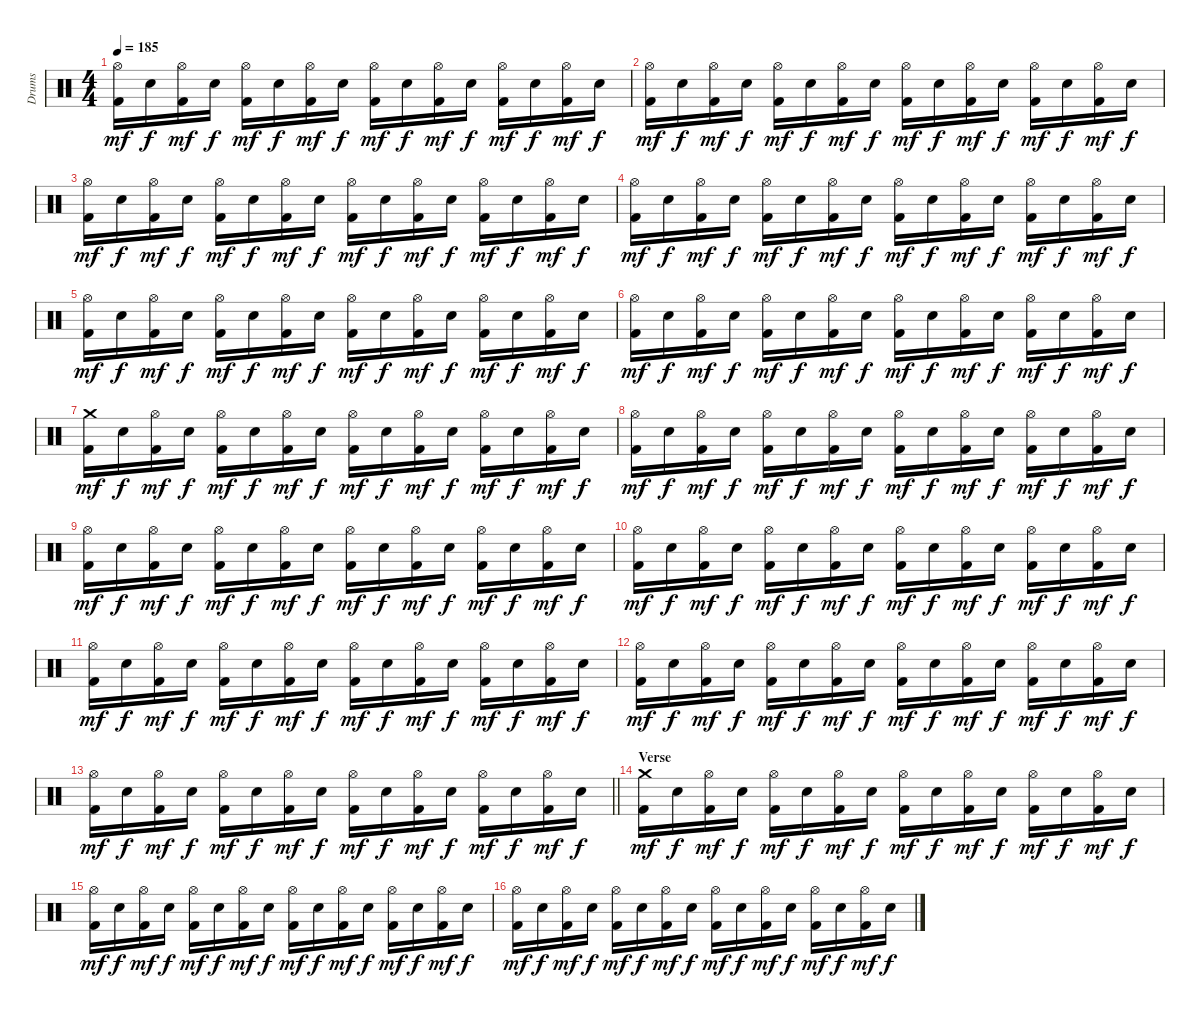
\track ("Drums" "Drums") {instrument percussion}
\staff {score}
\articulation defaults
\ts (4 4)
\tempo 185
\clef neutral
\ks c
("Hi-Hat (open)" "Kick (hit) 2").16{dy mf} "Electric Snare (hit)".16{dy f} ("Hi-Hat (open)" "Kick (hit) 2").16{dy mf} "Electric Snare (hit)".16{dy f} ("Hi-Hat (open)" "Kick (hit) 2").16{dy mf} "Electric Snare (hit)".16{dy f} ("Hi-Hat (open)" "Kick (hit) 2").16{dy mf} "Electric Snare (hit)".16{dy f} ("Hi-Hat (open)" "Kick (hit) 2").16{dy mf} "Electric Snare (hit)".16{dy f} ("Hi-Hat (open)" "Kick (hit) 2").16{dy mf} "Electric Snare (hit)".16{dy f} ("Hi-Hat (open)" "Kick (hit) 2").16{dy mf} "Electric Snare (hit)".16{dy f} ("Hi-Hat (open)" "Kick (hit) 2").16{dy mf} "Electric Snare (hit)".16{dy f} |
("Hi-Hat (open)" "Kick (hit) 2").16{dy mf} "Electric Snare (hit)".16{dy f} ("Hi-Hat (open)" "Kick (hit) 2").16{dy mf} "Electric Snare (hit)".16{dy f} ("Hi-Hat (open)" "Kick (hit) 2").16{dy mf} "Electric Snare (hit)".16{dy f} ("Hi-Hat (open)" "Kick (hit) 2").16{dy mf} "Electric Snare (hit)".16{dy f} ("Hi-Hat (open)" "Kick (hit) 2").16{dy mf} "Electric Snare (hit)".16{dy f} ("Hi-Hat (open)" "Kick (hit) 2").16{dy mf} "Electric Snare (hit)".16{dy f} ("Hi-Hat (open)" "Kick (hit) 2").16{dy mf} "Electric Snare (hit)".16{dy f} ("Hi-Hat (open)" "Kick (hit) 2").16{dy mf} "Electric Snare (hit)".16{dy f} |
("Hi-Hat (open)" "Kick (hit) 2").16{dy mf} "Electric Snare (hit)".16{dy f} ("Hi-Hat (open)" "Kick (hit) 2").16{dy mf} "Electric Snare (hit)".16{dy f} ("Hi-Hat (open)" "Kick (hit) 2").16{dy mf} "Electric Snare (hit)".16{dy f} ("Hi-Hat (open)" "Kick (hit) 2").16{dy mf} "Electric Snare (hit)".16{dy f} ("Hi-Hat (open)" "Kick (hit) 2").16{dy mf} "Electric Snare (hit)".16{dy f} ("Hi-Hat (open)" "Kick (hit) 2").16{dy mf} "Electric Snare (hit)".16{dy f} ("Hi-Hat (open)" "Kick (hit) 2").16{dy mf} "Electric Snare (hit)".16{dy f} ("Hi-Hat (open)" "Kick (hit) 2").16{dy mf} "Electric Snare (hit)".16{dy f} |
("Hi-Hat (open)" "Kick (hit) 2").16{dy mf} "Electric Snare (hit)".16{dy f} ("Hi-Hat (open)" "Kick (hit) 2").16{dy mf} "Electric Snare (hit)".16{dy f} ("Hi-Hat (open)" "Kick (hit) 2").16{dy mf} "Electric Snare (hit)".16{dy f} ("Hi-Hat (open)" "Kick (hit) 2").16{dy mf} "Electric Snare (hit)".16{dy f} ("Hi-Hat (open)" "Kick (hit) 2").16{dy mf} "Electric Snare (hit)".16{dy f} ("Hi-Hat (open)" "Kick (hit) 2").16{dy mf} "Electric Snare (hit)".16{dy f} ("Hi-Hat (open)" "Kick (hit) 2").16{dy mf} "Electric Snare (hit)".16{dy f} ("Hi-Hat (open)" "Kick (hit) 2").16{dy mf} "Electric Snare (hit)".16{dy f} |
("Hi-Hat (open)" "Kick (hit) 2").16{dy mf} "Electric Snare (hit)".16{dy f} ("Hi-Hat (open)" "Kick (hit) 2").16{dy mf} "Electric Snare (hit)".16{dy f} ("Hi-Hat (open)" "Kick (hit) 2").16{dy mf} "Electric Snare (hit)".16{dy f} ("Hi-Hat (open)" "Kick (hit) 2").16{dy mf} "Electric Snare (hit)".16{dy f} ("Hi-Hat (open)" "Kick (hit) 2").16{dy mf} "Electric Snare (hit)".16{dy f} ("Hi-Hat (open)" "Kick (hit) 2").16{dy mf} "Electric Snare (hit)".16{dy f} ("Hi-Hat (open)" "Kick (hit) 2").16{dy mf} "Electric Snare (hit)".16{dy f} ("Hi-Hat (open)" "Kick (hit) 2").16{dy mf} "Electric Snare (hit)".16{dy f} |
("Hi-Hat (open)" "Kick (hit) 2").16{dy mf} "Electric Snare (hit)".16{dy f} ("Hi-Hat (open)" "Kick (hit) 2").16{dy mf} "Electric Snare (hit)".16{dy f} ("Hi-Hat (open)" "Kick (hit) 2").16{dy mf} "Electric Snare (hit)".16{dy f} ("Hi-Hat (open)" "Kick (hit) 2").16{dy mf} "Electric Snare (hit)".16{dy f} ("Hi-Hat (open)" "Kick (hit) 2").16{dy mf} "Electric Snare (hit)".16{dy f} ("Hi-Hat (open)" "Kick (hit) 2").16{dy mf} "Electric Snare (hit)".16{dy f} ("Hi-Hat (open)" "Kick (hit) 2").16{dy mf} "Electric Snare (hit)".16{dy f} ("Hi-Hat (open)" "Kick (hit) 2").16{dy mf} "Electric Snare (hit)".16{dy f} |
("Crash medium (hit)" "Kick (hit) 2").16{dy mf} "Electric Snare (hit)".16{dy f} ("Hi-Hat (open)" "Kick (hit) 2").16{dy mf} "Electric Snare (hit)".16{dy f} ("Hi-Hat (open)" "Kick (hit) 2").16{dy mf} "Electric Snare (hit)".16{dy f} ("Hi-Hat (open)" "Kick (hit) 2").16{dy mf} "Electric Snare (hit)".16{dy f} ("Hi-Hat (open)" "Kick (hit) 2").16{dy mf} "Electric Snare (hit)".16{dy f} ("Hi-Hat (open)" "Kick (hit) 2").16{dy mf} "Electric Snare (hit)".16{dy f} ("Hi-Hat (open)" "Kick (hit) 2").16{dy mf} "Electric Snare (hit)".16{dy f} ("Hi-Hat (open)" "Kick (hit) 2").16{dy mf} "Electric Snare (hit)".16{dy f} |
("Hi-Hat (open)" "Kick (hit) 2").16{dy mf} "Electric Snare (hit)".16{dy f} ("Hi-Hat (open)" "Kick (hit) 2").16{dy mf} "Electric Snare (hit)".16{dy f} ("Hi-Hat (open)" "Kick (hit) 2").16{dy mf} "Electric Snare (hit)".16{dy f} ("Hi-Hat (open)" "Kick (hit) 2").16{dy mf} "Electric Snare (hit)".16{dy f} ("Hi-Hat (open)" "Kick (hit) 2").16{dy mf} "Electric Snare (hit)".16{dy f} ("Hi-Hat (open)" "Kick (hit) 2").16{dy mf} "Electric Snare (hit)".16{dy f} ("Hi-Hat (open)" "Kick (hit) 2").16{dy mf} "Electric Snare (hit)".16{dy f} ("Hi-Hat (open)" "Kick (hit) 2").16{dy mf} "Electric Snare (hit)".16{dy f} |
("Hi-Hat (open)" "Kick (hit) 2").16{dy mf} "Electric Snare (hit)".16{dy f} ("Hi-Hat (open)" "Kick (hit) 2").16{dy mf} "Electric Snare (hit)".16{dy f} ("Hi-Hat (open)" "Kick (hit) 2").16{dy mf} "Electric Snare (hit)".16{dy f} ("Hi-Hat (open)" "Kick (hit) 2").16{dy mf} "Electric Snare (hit)".16{dy f} ("Hi-Hat (open)" "Kick (hit) 2").16{dy mf} "Electric Snare (hit)".16{dy f} ("Hi-Hat (open)" "Kick (hit) 2").16{dy mf} "Electric Snare (hit)".16{dy f} ("Hi-Hat (open)" "Kick (hit) 2").16{dy mf} "Electric Snare (hit)".16{dy f} ("Hi-Hat (open)" "Kick (hit) 2").16{dy mf} "Electric Snare (hit)".16{dy f} |
("Hi-Hat (open)" "Kick (hit) 2").16{dy mf} "Electric Snare (hit)".16{dy f} ("Hi-Hat (open)" "Kick (hit) 2").16{dy mf} "Electric Snare (hit)".16{dy f} ("Hi-Hat (open)" "Kick (hit) 2").16{dy mf} "Electric Snare (hit)".16{dy f} ("Hi-Hat (open)" "Kick (hit) 2").16{dy mf} "Electric Snare (hit)".16{dy f} ("Hi-Hat (open)" "Kick (hit) 2").16{dy mf} "Electric Snare (hit)".16{dy f} ("Hi-Hat (open)" "Kick (hit) 2").16{dy mf} "Electric Snare (hit)".16{dy f} ("Hi-Hat (open)" "Kick (hit) 2").16{dy mf} "Electric Snare (hit)".16{dy f} ("Hi-Hat (open)" "Kick (hit) 2").16{dy mf} "Electric Snare (hit)".16{dy f} |
("Hi-Hat (open)" "Kick (hit) 2").16{dy mf} "Electric Snare (hit)".16{dy f} ("Hi-Hat (open)" "Kick (hit) 2").16{dy mf} "Electric Snare (hit)".16{dy f} ("Hi-Hat (open)" "Kick (hit) 2").16{dy mf} "Electric Snare (hit)".16{dy f} ("Hi-Hat (open)" "Kick (hit) 2").16{dy mf} "Electric Snare (hit)".16{dy f} ("Hi-Hat (open)" "Kick (hit) 2").16{dy mf} "Electric Snare (hit)".16{dy f} ("Hi-Hat (open)" "Kick (hit) 2").16{dy mf} "Electric Snare (hit)".16{dy f} ("Hi-Hat (open)" "Kick (hit) 2").16{dy mf} "Electric Snare (hit)".16{dy f} ("Hi-Hat (open)" "Kick (hit) 2").16{dy mf} "Electric Snare (hit)".16{dy f} |
("Hi-Hat (open)" "Kick (hit) 2").16{dy mf} "Electric Snare (hit)".16{dy f} ("Hi-Hat (open)" "Kick (hit) 2").16{dy mf} "Electric Snare (hit)".16{dy f} ("Hi-Hat (open)" "Kick (hit) 2").16{dy mf} "Electric Snare (hit)".16{dy f} ("Hi-Hat (open)" "Kick (hit) 2").16{dy mf} "Electric Snare (hit)".16{dy f} ("Hi-Hat (open)" "Kick (hit) 2").16{dy mf} "Electric Snare (hit)".16{dy f} ("Hi-Hat (open)" "Kick (hit) 2").16{dy mf} "Electric Snare (hit)".16{dy f} ("Hi-Hat (open)" "Kick (hit) 2").16{dy mf} "Electric Snare (hit)".16{dy f} ("Hi-Hat (open)" "Kick (hit) 2").16{dy mf} "Electric Snare (hit)".16{dy f} |
\barLineRight lightlight
("Hi-Hat (open)" "Kick (hit) 2").16{dy mf} "Electric Snare (hit)".16{dy f} ("Hi-Hat (open)" "Kick (hit) 2").16{dy mf} "Electric Snare (hit)".16{dy f} ("Hi-Hat (open)" "Kick (hit) 2").16{dy mf} "Electric Snare (hit)".16{dy f} ("Hi-Hat (open)" "Kick (hit) 2").16{dy mf} "Electric Snare (hit)".16{dy f} ("Hi-Hat (open)" "Kick (hit) 2").16{dy mf} "Electric Snare (hit)".16{dy f} ("Hi-Hat (open)" "Kick (hit) 2").16{dy mf} "Electric Snare (hit)".16{dy f} ("Hi-Hat (open)" "Kick (hit) 2").16{dy mf} "Electric Snare (hit)".16{dy f} ("Hi-Hat (open)" "Kick (hit) 2").16{dy mf} "Electric Snare (hit)".16{dy f} |
\section ("" "Verse")
("Crash medium (hit)" "Kick (hit) 2").16{dy mf} "Electric Snare (hit)".16{dy f} ("Hi-Hat (open)" "Kick (hit) 2").16{dy mf} "Electric Snare (hit)".16{dy f} ("Hi-Hat (open)" "Kick (hit) 2").16{dy mf} "Electric Snare (hit)".16{dy f} ("Hi-Hat (open)" "Kick (hit) 2").16{dy mf} "Electric Snare (hit)".16{dy f} ("Hi-Hat (open)" "Kick (hit) 2").16{dy mf} "Electric Snare (hit)".16{dy f} ("Hi-Hat (open)" "Kick (hit) 2").16{dy mf} "Electric Snare (hit)".16{dy f} ("Hi-Hat (open)" "Kick (hit) 2").16{dy mf} "Electric Snare (hit)".16{dy f} ("Hi-Hat (open)" "Kick (hit) 2").16{dy mf} "Electric Snare (hit)".16{dy f} |
("Hi-Hat (open)" "Kick (hit) 2").16{dy mf} "Electric Snare (hit)".16{dy f} ("Hi-Hat (open)" "Kick (hit) 2").16{dy mf} "Electric Snare (hit)".16{dy f} ("Hi-Hat (open)" "Kick (hit) 2").16{dy mf} "Electric Snare (hit)".16{dy f} ("Hi-Hat (open)" "Kick (hit) 2").16{dy mf} "Electric Snare (hit)".16{dy f} ("Hi-Hat (open)" "Kick (hit) 2").16{dy mf} "Electric Snare (hit)".16{dy f} ("Hi-Hat (open)" "Kick (hit) 2").16{dy mf} "Electric Snare (hit)".16{dy f} ("Hi-Hat (open)" "Kick (hit) 2").16{dy mf} "Electric Snare (hit)".16{dy f} ("Hi-Hat (open)" "Kick (hit) 2").16{dy mf} "Electric Snare (hit)".16{dy f} |
("Hi-Hat (open)" "Kick (hit) 2").16{dy mf} "Electric Snare (hit)".16{dy f} ("Hi-Hat (open)" "Kick (hit) 2").16{dy mf} "Electric Snare (hit)".16{dy f} ("Hi-Hat (open)" "Kick (hit) 2").16{dy mf} "Electric Snare (hit)".16{dy f} ("Hi-Hat (open)" "Kick (hit) 2").16{dy mf} "Electric Snare (hit)".16{dy f} ("Hi-Hat (open)" "Kick (hit) 2").16{dy mf} "Electric Snare (hit)".16{dy f} ("Hi-Hat (open)" "Kick (hit) 2").16{dy mf} "Electric Snare (hit)".16{dy f} ("Hi-Hat (open)" "Kick (hit) 2").16{dy mf} "Electric Snare (hit)".16{dy f} ("Hi-Hat (open)" "Kick (hit) 2").16{dy mf} "Electric Snare (hit)".16{dy f}
